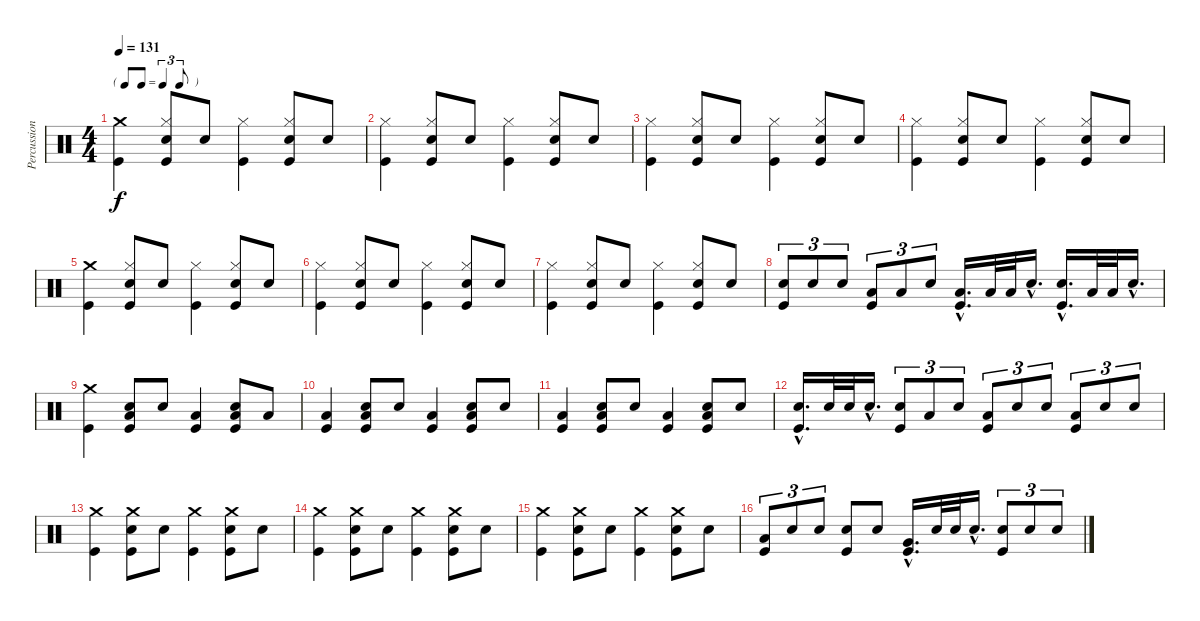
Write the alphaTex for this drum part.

\track ("Percussion" "Percussion") {instrument percussion}
\staff {score}
\articulation defaults
\ts (4 4)
\tf triplet8th
\tempo 131
\clef neutral
\ks c
("Crash medium (hit)" "Kick (hit)").4{dy f} ("Hi-Hat (closed)" "Snare (hit) 2" "Kick (hit)").8 "Snare (hit) 2".8 ("Hi-Hat (closed)" "Kick (hit)").4 ("Hi-Hat (closed)" "Snare (hit) 2" "Kick (hit)").8 "Snare (hit) 2".8 |
("Hi-Hat (closed)" "Kick (hit)").4 ("Hi-Hat (closed)" "Snare (hit) 2" "Kick (hit)").8 "Snare (hit) 2".8 ("Hi-Hat (closed)" "Kick (hit)").4 ("Hi-Hat (closed)" "Snare (hit) 2" "Kick (hit)").8 "Snare (hit) 2".8 |
("Hi-Hat (closed)" "Kick (hit)").4 ("Hi-Hat (closed)" "Snare (hit) 2" "Kick (hit)").8 "Snare (hit) 2".8 ("Hi-Hat (closed)" "Kick (hit)").4 ("Hi-Hat (closed)" "Snare (hit) 2" "Kick (hit)").8 "Snare (hit) 2".8 |
("Hi-Hat (closed)" "Kick (hit)").4 ("Hi-Hat (closed)" "Snare (hit) 2" "Kick (hit)").8 "Snare (hit) 2".8 ("Hi-Hat (closed)" "Kick (hit)").4 ("Hi-Hat (closed)" "Snare (hit) 2" "Kick (hit)").8 "Snare (hit) 2".8 |
("Crash medium (hit)" "Kick (hit)").4 ("Hi-Hat (closed)" "Snare (hit) 2" "Kick (hit)").8 "Snare (hit) 2".8 ("Hi-Hat (closed)" "Kick (hit)").4 ("Hi-Hat (closed)" "Snare (hit) 2" "Kick (hit)").8 "Snare (hit) 2".8 |
("Hi-Hat (closed)" "Kick (hit)").4 ("Hi-Hat (closed)" "Snare (hit) 2" "Kick (hit)").8 "Snare (hit) 2".8 ("Hi-Hat (closed)" "Kick (hit)").4 ("Hi-Hat (closed)" "Snare (hit) 2" "Kick (hit)").8 "Snare (hit) 2".8 |
("Hi-Hat (closed)" "Kick (hit)").4 ("Hi-Hat (closed)" "Snare (hit) 2" "Kick (hit)").8 "Snare (hit) 2".8 ("Hi-Hat (closed)" "Kick (hit)").4 ("Hi-Hat (closed)" "Snare (hit) 2" "Kick (hit)").8 "Snare (hit) 2".8 |
("Snare (hit) 2" "Kick (hit)").8{tu (3 2)} "Snare (hit) 2".8{tu (3 2)} "Snare (hit) 2".8{tu (3 2)} ("Low Tom (hit)" "Kick (hit)").8{tu (3 2)} "Low Tom (hit)".8{tu (3 2)} "Snare (hit) 2".8{tu (3 2)} ("Low Tom (hit)"{hac} "Kick (hit)"{hac}).16{d} "Low Tom (hit)".32 "Low Tom (hit)".32 "Snare (hit) 2"{hac}.16{d} ("Snare (hit) 2"{hac} "Kick (hit)"{hac}).16{d} "Low Tom (hit)".32 "Low Tom (hit)".32 "Snare (hit) 2"{hac}.16{d} |
("Crash medium (hit)" "Kick (hit)").4 ("Low Tom (hit)" "Snare (hit) 2" "Kick (hit)").8 "Snare (hit) 2".8 ("Low Tom (hit)" "Kick (hit)").4 ("Low Tom (hit)" "Snare (hit) 2" "Kick (hit)").8 "Low Tom (hit)".8 |
("Low Tom (hit)" "Kick (hit)").4 ("Low Tom (hit)" "Snare (hit) 2" "Kick (hit)").8 "Snare (hit) 2".8 ("Low Tom (hit)" "Kick (hit)").4 ("Low Tom (hit)" "Snare (hit) 2" "Kick (hit)").8 "Snare (hit) 2".8 |
("Low Tom (hit)" "Kick (hit)").4 ("Low Tom (hit)" "Snare (hit) 2" "Kick (hit)").8 "Snare (hit) 2".8 ("Low Tom (hit)" "Kick (hit)").4 ("Low Tom (hit)" "Snare (hit) 2" "Kick (hit)").8 "Snare (hit) 2".8 |
("Snare (hit) 2"{hac} "Kick (hit)"{hac}).16{d} "Snare (hit) 2".32 "Snare (hit) 2".32 "Snare (hit) 2"{hac}.16{d} ("Snare (hit) 2" "Kick (hit)").8{tu (3 2)} "Low Tom (hit)".8{tu (3 2)} "Snare (hit) 2".8{tu (3 2)} ("Low Tom (hit)" "Kick (hit)").8{tu (3 2)} "Snare (hit) 2".8{tu (3 2)} "Snare (hit) 2".8{tu (3 2)} ("Low Tom (hit)" "Kick (hit)").8{tu (3 2)} "Snare (hit) 2".8{tu (3 2)} "Snare (hit) 2".8{tu (3 2)} |
("Crash medium (hit)" "Kick (hit)").4 ("Crash medium (hit)" "Snare (hit) 2" "Kick (hit)").8 "Snare (hit) 2".8 ("Crash medium (hit)" "Kick (hit)").4 ("Crash medium (hit)" "Snare (hit) 2" "Kick (hit)").8 "Snare (hit) 2".8 |
("Crash medium (hit)" "Kick (hit)").4 ("Crash medium (hit)" "Snare (hit) 2" "Kick (hit)").8 "Snare (hit) 2".8 ("Crash medium (hit)" "Kick (hit)").4 ("Crash medium (hit)" "Snare (hit) 2" "Kick (hit)").8 "Snare (hit) 2".8 |
("Crash medium (hit)" "Kick (hit)").4 ("Crash medium (hit)" "Snare (hit) 2" "Kick (hit)").8 "Snare (hit) 2".8 ("Crash medium (hit)" "Kick (hit)").4 ("Crash medium (hit)" "Snare (hit) 2" "Kick (hit)").8 "Snare (hit) 2".8 |
("Low Tom (hit)" "Kick (hit)").8{tu (3 2)} "Snare (hit) 2".8{tu (3 2)} "Snare (hit) 2".8{tu (3 2)} ("Snare (hit) 2" "Kick (hit)").8 "Snare (hit) 2".8 ("Very Low Tom (hit)"{hac} "Kick (hit)"{hac}).16{d} "Snare (hit) 2".32 "Snare (hit) 2".32 "Snare (hit) 2"{hac}.16{d} ("Snare (hit) 2" "Kick (hit)").8{tu (3 2)} "Snare (hit) 2".8{tu (3 2)} "Snare (hit) 2".8{tu (3 2)}
